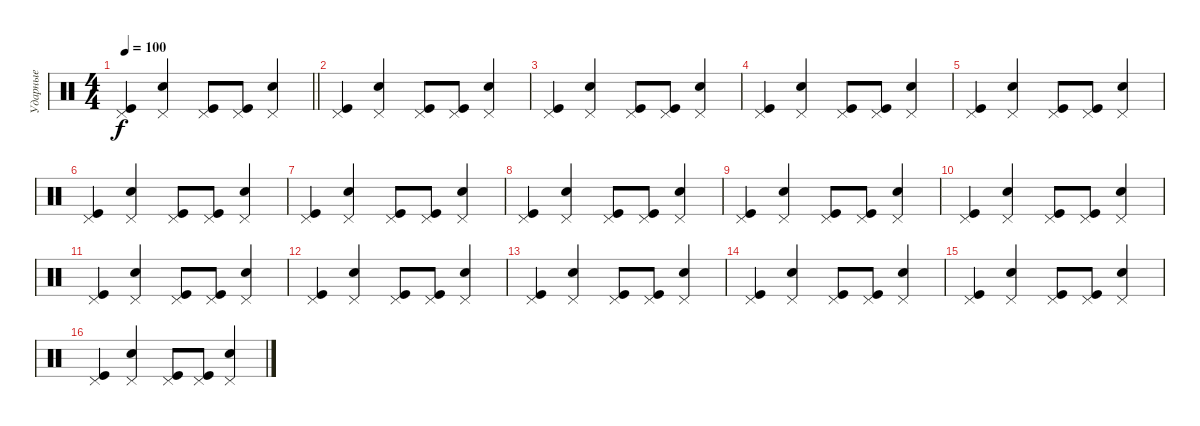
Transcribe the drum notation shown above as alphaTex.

\track ("Ударные" "Ударные") {instrument percussion}
\staff {score}
\articulation defaults
\ts (4 4)
\tempo 100
\clef neutral
\barLineRight lightlight
\ks c
("Pedal Hi-Hat (hit)" "Kick (hit)").4{dy f} ("Pedal Hi-Hat (hit)" "Snare (hit) 2").4 ("Pedal Hi-Hat (hit)" "Kick (hit)").8 ("Pedal Hi-Hat (hit)" "Kick (hit)").8 ("Pedal Hi-Hat (hit)" "Snare (hit) 2").4 |
("Pedal Hi-Hat (hit)" "Kick (hit)").4 ("Pedal Hi-Hat (hit)" "Snare (hit) 2").4 ("Pedal Hi-Hat (hit)" "Kick (hit)").8 ("Pedal Hi-Hat (hit)" "Kick (hit)").8 ("Pedal Hi-Hat (hit)" "Snare (hit) 2").4 |
("Pedal Hi-Hat (hit)" "Kick (hit)").4 ("Pedal Hi-Hat (hit)" "Snare (hit) 2").4 ("Pedal Hi-Hat (hit)" "Kick (hit)").8 ("Pedal Hi-Hat (hit)" "Kick (hit)").8 ("Pedal Hi-Hat (hit)" "Snare (hit) 2").4 |
("Pedal Hi-Hat (hit)" "Kick (hit)").4 ("Pedal Hi-Hat (hit)" "Snare (hit) 2").4 ("Pedal Hi-Hat (hit)" "Kick (hit)").8 ("Pedal Hi-Hat (hit)" "Kick (hit)").8 ("Pedal Hi-Hat (hit)" "Snare (hit) 2").4 |
("Pedal Hi-Hat (hit)" "Kick (hit)").4 ("Pedal Hi-Hat (hit)" "Snare (hit) 2").4 ("Pedal Hi-Hat (hit)" "Kick (hit)").8 ("Pedal Hi-Hat (hit)" "Kick (hit)").8 ("Pedal Hi-Hat (hit)" "Snare (hit) 2").4 |
("Pedal Hi-Hat (hit)" "Kick (hit)").4 ("Pedal Hi-Hat (hit)" "Snare (hit) 2").4 ("Pedal Hi-Hat (hit)" "Kick (hit)").8 ("Pedal Hi-Hat (hit)" "Kick (hit)").8 ("Pedal Hi-Hat (hit)" "Snare (hit) 2").4 |
("Pedal Hi-Hat (hit)" "Kick (hit)").4 ("Pedal Hi-Hat (hit)" "Snare (hit) 2").4 ("Pedal Hi-Hat (hit)" "Kick (hit)").8 ("Pedal Hi-Hat (hit)" "Kick (hit)").8 ("Pedal Hi-Hat (hit)" "Snare (hit) 2").4 |
("Pedal Hi-Hat (hit)" "Kick (hit)").4 ("Pedal Hi-Hat (hit)" "Snare (hit) 2").4 ("Pedal Hi-Hat (hit)" "Kick (hit)").8 ("Pedal Hi-Hat (hit)" "Kick (hit)").8 ("Pedal Hi-Hat (hit)" "Snare (hit) 2").4 |
("Pedal Hi-Hat (hit)" "Kick (hit)").4 ("Pedal Hi-Hat (hit)" "Snare (hit) 2").4 ("Pedal Hi-Hat (hit)" "Kick (hit)").8 ("Pedal Hi-Hat (hit)" "Kick (hit)").8 ("Pedal Hi-Hat (hit)" "Snare (hit) 2").4 |
("Pedal Hi-Hat (hit)" "Kick (hit)").4 ("Pedal Hi-Hat (hit)" "Snare (hit) 2").4 ("Pedal Hi-Hat (hit)" "Kick (hit)").8 ("Pedal Hi-Hat (hit)" "Kick (hit)").8 ("Pedal Hi-Hat (hit)" "Snare (hit) 2").4 |
("Pedal Hi-Hat (hit)" "Kick (hit)").4 ("Pedal Hi-Hat (hit)" "Snare (hit) 2").4 ("Pedal Hi-Hat (hit)" "Kick (hit)").8 ("Pedal Hi-Hat (hit)" "Kick (hit)").8 ("Pedal Hi-Hat (hit)" "Snare (hit) 2").4 |
("Pedal Hi-Hat (hit)" "Kick (hit)").4 ("Pedal Hi-Hat (hit)" "Snare (hit) 2").4 ("Pedal Hi-Hat (hit)" "Kick (hit)").8 ("Pedal Hi-Hat (hit)" "Kick (hit)").8 ("Pedal Hi-Hat (hit)" "Snare (hit) 2").4 |
("Pedal Hi-Hat (hit)" "Kick (hit)").4 ("Pedal Hi-Hat (hit)" "Snare (hit) 2").4 ("Pedal Hi-Hat (hit)" "Kick (hit)").8 ("Pedal Hi-Hat (hit)" "Kick (hit)").8 ("Pedal Hi-Hat (hit)" "Snare (hit) 2").4 |
("Pedal Hi-Hat (hit)" "Kick (hit)").4 ("Pedal Hi-Hat (hit)" "Snare (hit) 2").4 ("Pedal Hi-Hat (hit)" "Kick (hit)").8 ("Pedal Hi-Hat (hit)" "Kick (hit)").8 ("Pedal Hi-Hat (hit)" "Snare (hit) 2").4 |
("Pedal Hi-Hat (hit)" "Kick (hit)").4 ("Pedal Hi-Hat (hit)" "Snare (hit) 2").4 ("Pedal Hi-Hat (hit)" "Kick (hit)").8 ("Pedal Hi-Hat (hit)" "Kick (hit)").8 ("Pedal Hi-Hat (hit)" "Snare (hit) 2").4 |
("Pedal Hi-Hat (hit)" "Kick (hit)").4 ("Pedal Hi-Hat (hit)" "Snare (hit) 2").4 ("Pedal Hi-Hat (hit)" "Kick (hit)").8 ("Pedal Hi-Hat (hit)" "Kick (hit)").8 ("Pedal Hi-Hat (hit)" "Snare (hit) 2").4
